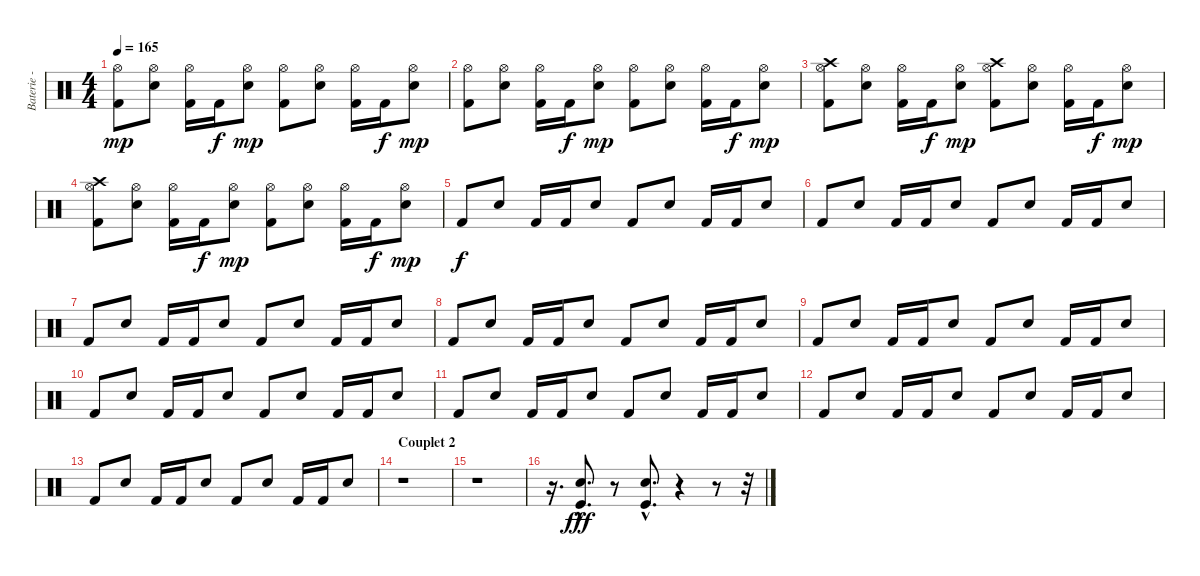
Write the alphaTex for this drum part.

\track ("Baterie - Guillaume" "Baterie - ") {instrument percussion}
\staff {score}
\articulation defaults
\ts (4 4)
\tempo 165
\clef neutral
\ks c
("Hi-Hat (open)" "Kick (hit) 2").8{dy mp} ("Hi-Hat (open)" "Electric Snare (hit)").8 ("Hi-Hat (open)" "Kick (hit) 2").16 "Kick (hit) 2".16{dy f} ("Hi-Hat (open)" "Electric Snare (hit)").8{dy mp} ("Hi-Hat (open)" "Kick (hit) 2").8 ("Hi-Hat (open)" "Electric Snare (hit)").8 ("Hi-Hat (open)" "Kick (hit) 2").16 "Kick (hit) 2".16{dy f} ("Hi-Hat (open)" "Electric Snare (hit)").8{dy mp} |
("Hi-Hat (open)" "Kick (hit) 2").8 ("Hi-Hat (open)" "Electric Snare (hit)").8 ("Hi-Hat (open)" "Kick (hit) 2").16 "Kick (hit) 2".16{dy f} ("Hi-Hat (open)" "Electric Snare (hit)").8{dy mp} ("Hi-Hat (open)" "Kick (hit) 2").8 ("Hi-Hat (open)" "Electric Snare (hit)").8 ("Hi-Hat (open)" "Kick (hit) 2").16 "Kick (hit) 2".16{dy f} ("Hi-Hat (open)" "Electric Snare (hit)").8{dy mp} |
("Crash high (hit)" "Hi-Hat (open)" "Kick (hit) 2").8 ("Hi-Hat (open)" "Electric Snare (hit)").8 ("Hi-Hat (open)" "Kick (hit) 2").16 "Kick (hit) 2".16{dy f} ("Hi-Hat (open)" "Electric Snare (hit)").8{dy mp} ("Crash high (hit)" "Hi-Hat (open)" "Kick (hit) 2").8 ("Hi-Hat (open)" "Electric Snare (hit)").8 ("Hi-Hat (open)" "Kick (hit) 2").16 "Kick (hit) 2".16{dy f} ("Hi-Hat (open)" "Electric Snare (hit)").8{dy mp} |
("Crash high (hit)" "Hi-Hat (open)" "Kick (hit) 2").8 ("Hi-Hat (open)" "Electric Snare (hit)").8 ("Hi-Hat (open)" "Kick (hit) 2").16 "Kick (hit) 2".16{dy f} ("Hi-Hat (open)" "Electric Snare (hit)").8{dy mp} ("Hi-Hat (open)" "Kick (hit) 2").8 ("Hi-Hat (open)" "Electric Snare (hit)").8 ("Hi-Hat (open)" "Kick (hit) 2").16 "Kick (hit) 2".16{dy f} ("Hi-Hat (open)" "Electric Snare (hit)").8{dy mp} |
"Kick (hit) 2".8{dy f} "Electric Snare (hit)".8 "Kick (hit) 2".16 "Kick (hit) 2".16 "Electric Snare (hit)".8 "Kick (hit) 2".8 "Electric Snare (hit)".8 "Kick (hit) 2".16 "Kick (hit) 2".16 "Electric Snare (hit)".8 |
"Kick (hit) 2".8 "Electric Snare (hit)".8 "Kick (hit) 2".16 "Kick (hit) 2".16 "Electric Snare (hit)".8 "Kick (hit) 2".8 "Electric Snare (hit)".8 "Kick (hit) 2".16 "Kick (hit) 2".16 "Electric Snare (hit)".8 |
"Kick (hit) 2".8 "Electric Snare (hit)".8 "Kick (hit) 2".16 "Kick (hit) 2".16 "Electric Snare (hit)".8 "Kick (hit) 2".8 "Electric Snare (hit)".8 "Kick (hit) 2".16 "Kick (hit) 2".16 "Electric Snare (hit)".8 |
"Kick (hit) 2".8 "Electric Snare (hit)".8 "Kick (hit) 2".16 "Kick (hit) 2".16 "Electric Snare (hit)".8 "Kick (hit) 2".8 "Electric Snare (hit)".8 "Kick (hit) 2".16 "Kick (hit) 2".16 "Electric Snare (hit)".8 |
"Kick (hit) 2".8 "Electric Snare (hit)".8 "Kick (hit) 2".16 "Kick (hit) 2".16 "Electric Snare (hit)".8 "Kick (hit) 2".8 "Electric Snare (hit)".8 "Kick (hit) 2".16 "Kick (hit) 2".16 "Electric Snare (hit)".8 |
"Kick (hit) 2".8 "Electric Snare (hit)".8 "Kick (hit) 2".16 "Kick (hit) 2".16 "Electric Snare (hit)".8 "Kick (hit) 2".8 "Electric Snare (hit)".8 "Kick (hit) 2".16 "Kick (hit) 2".16 "Electric Snare (hit)".8 |
"Kick (hit) 2".8 "Electric Snare (hit)".8 "Kick (hit) 2".16 "Kick (hit) 2".16 "Electric Snare (hit)".8 "Kick (hit) 2".8 "Electric Snare (hit)".8 "Kick (hit) 2".16 "Kick (hit) 2".16 "Electric Snare (hit)".8 |
"Kick (hit) 2".8 "Electric Snare (hit)".8 "Kick (hit) 2".16 "Kick (hit) 2".16 "Electric Snare (hit)".8 "Kick (hit) 2".8 "Electric Snare (hit)".8 "Kick (hit) 2".16 "Kick (hit) 2".16 "Electric Snare (hit)".8 |
"Kick (hit) 2".8 "Electric Snare (hit)".8 "Kick (hit) 2".16 "Kick (hit) 2".16 "Electric Snare (hit)".8 "Kick (hit) 2".8 "Electric Snare (hit)".8 "Kick (hit) 2".16 "Kick (hit) 2".16 "Electric Snare (hit)".8 |
\section ("" "Couplet 2")
r.1 |
r.1 |
r.16{d} ("Snare (hit) 2"{hac} "Kick (hit)"{hac}).8{d dy fff} r.8 ("Snare (hit) 2"{hac} "Kick (hit)"{hac}).8{d} r.4 r.8 r.32
